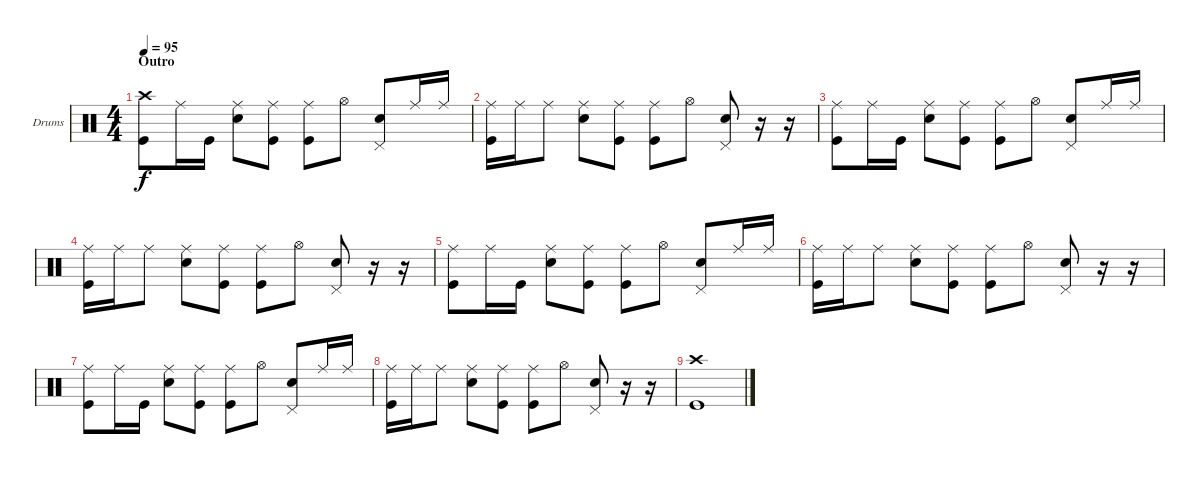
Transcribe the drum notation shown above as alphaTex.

\bracketExtendMode groupsimilarinstruments
\firstSystemTrackNameOrientation horizontal
\otherSystemsTrackNameOrientation horizontal
\track ("Drumkit" "Drums") {instrument percussion}
\staff {score}
\articulation defaults
\ts (4 4)
\section ("" "Outro")
\tempo 95
\clef neutral
\ks c
("Crash high (hit)" "Kick (hit)").8{dy f} "Ride (middle)".16 "Kick (hit)".16 ("Ride (middle)" "Snare (hit) 2").8 ("Ride (middle)" "Kick (hit)").8 ("Ride (middle)" "Kick (hit)").8 "Hi-Hat (open)".8 ("Pedal Hi-Hat (hit)" "Snare (hit) 2").8 "Ride (middle)".16 "Ride (middle)".16 |
("Ride (middle)" "Kick (hit)").16 "Ride (middle)".16 "Ride (middle)".8 ("Ride (middle)" "Snare (hit) 2").8 ("Ride (middle)" "Kick (hit)").8 ("Ride (middle)" "Kick (hit)").8 "Hi-Hat (open)".8 ("Pedal Hi-Hat (hit)" "Snare (hit) 2").8 r.16 r.16 |
("Ride (middle)" "Kick (hit)").8 "Ride (middle)".16 "Kick (hit)".16 ("Ride (middle)" "Snare (hit) 2").8 ("Ride (middle)" "Kick (hit)").8 ("Ride (middle)" "Kick (hit)").8 "Hi-Hat (open)".8 ("Pedal Hi-Hat (hit)" "Snare (hit) 2").8 "Ride (middle)".16 "Ride (middle)".16 |
("Ride (middle)" "Kick (hit)").16 "Ride (middle)".16 "Ride (middle)".8 ("Ride (middle)" "Snare (hit) 2").8 ("Ride (middle)" "Kick (hit)").8 ("Ride (middle)" "Kick (hit)").8 "Hi-Hat (open)".8 ("Pedal Hi-Hat (hit)" "Snare (hit) 2").8 r.16 r.16 |
("Ride (middle)" "Kick (hit)").8 "Ride (middle)".16 "Kick (hit)".16 ("Ride (middle)" "Snare (hit) 2").8 ("Ride (middle)" "Kick (hit)").8 ("Ride (middle)" "Kick (hit)").8 "Hi-Hat (open)".8 ("Pedal Hi-Hat (hit)" "Snare (hit) 2").8 "Ride (middle)".16 "Ride (middle)".16 |
("Ride (middle)" "Kick (hit)").16 "Ride (middle)".16 "Ride (middle)".8 ("Ride (middle)" "Snare (hit) 2").8 ("Ride (middle)" "Kick (hit)").8 ("Ride (middle)" "Kick (hit)").8 "Hi-Hat (open)".8 ("Pedal Hi-Hat (hit)" "Snare (hit) 2").8 r.16 r.16 |
("Ride (middle)" "Kick (hit)").8 "Ride (middle)".16 "Kick (hit)".16 ("Ride (middle)" "Snare (hit) 2").8 ("Ride (middle)" "Kick (hit)").8 ("Ride (middle)" "Kick (hit)").8 "Hi-Hat (open)".8 ("Pedal Hi-Hat (hit)" "Snare (hit) 2").8 "Ride (middle)".16 "Ride (middle)".16 |
("Ride (middle)" "Kick (hit)").16 "Ride (middle)".16 "Ride (middle)".8 ("Ride (middle)" "Snare (hit) 2").8 ("Ride (middle)" "Kick (hit)").8 ("Ride (middle)" "Kick (hit)").8 "Hi-Hat (open)".8 ("Pedal Hi-Hat (hit)" "Snare (hit) 2").8 r.16 r.16 |
("Crash high (hit)" "Kick (hit)").1
